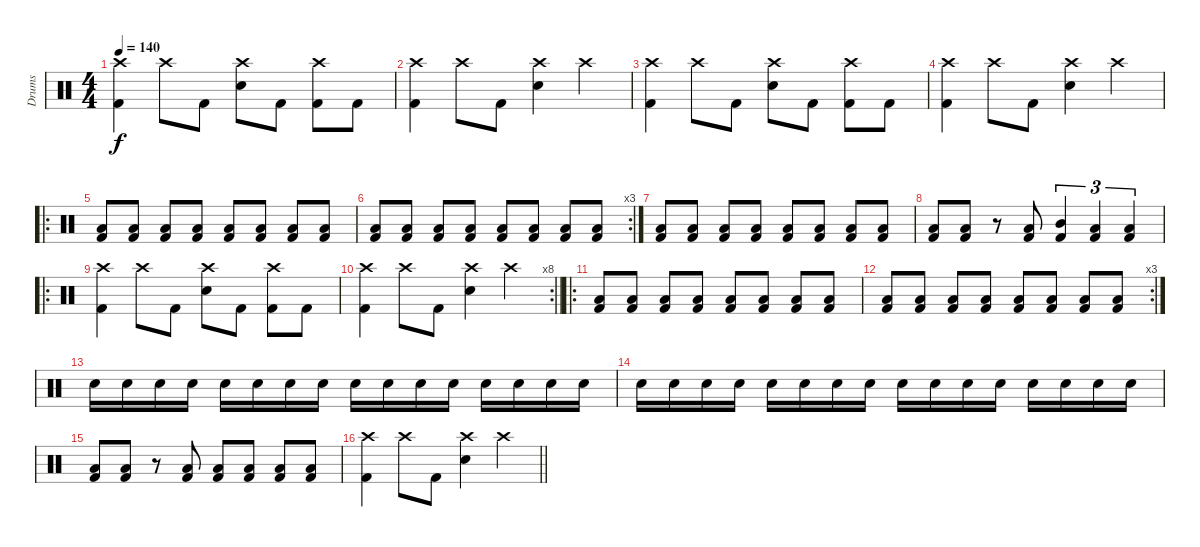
\track ("Drums" "Drums") {instrument percussion}
\staff {score}
\articulation defaults
\ts (4 4)
\tempo 140
\clef neutral
\ks c
("Kick (hit) 2" "Crash high (hit)").4{dy f} "Crash high (hit)".8 "Kick (hit) 2".8 ("Snare (hit) 2" "Crash high (hit)").8 "Kick (hit) 2".8 ("Kick (hit) 2" "Crash high (hit)").8 "Kick (hit) 2".8 |
("Kick (hit) 2" "Crash high (hit)").4 "Crash high (hit)".8 "Kick (hit) 2".8 ("Snare (hit) 2" "Crash high (hit)").4 "Crash high (hit)".4 |
("Kick (hit) 2" "Crash high (hit)").4 "Crash high (hit)".8 "Kick (hit) 2".8 ("Snare (hit) 2" "Crash high (hit)").8 "Kick (hit) 2".8 ("Kick (hit) 2" "Crash high (hit)").8 "Kick (hit) 2".8 |
("Kick (hit) 2" "Crash high (hit)").4 "Crash high (hit)".8 "Kick (hit) 2".8 ("Snare (hit) 2" "Crash high (hit)").4 "Crash high (hit)".4 |
\ro
("Kick (hit) 2" "Low Floor Tom (hit)").8 ("Kick (hit) 2" "Low Floor Tom (hit)").8 ("Kick (hit) 2" "Low Floor Tom (hit)").8 ("Kick (hit) 2" "Low Floor Tom (hit)").8 ("Kick (hit) 2" "Low Floor Tom (hit)").8 ("Kick (hit) 2" "Low Floor Tom (hit)").8 ("Kick (hit) 2" "Low Floor Tom (hit)").8 ("Kick (hit) 2" "Low Floor Tom (hit)").8 |
\rc 3
("Kick (hit) 2" "Low Floor Tom (hit)").8 ("Kick (hit) 2" "Low Floor Tom (hit)").8 ("Kick (hit) 2" "Low Floor Tom (hit)").8 ("Kick (hit) 2" "Low Floor Tom (hit)").8 ("Kick (hit) 2" "Low Floor Tom (hit)").8 ("Kick (hit) 2" "Low Floor Tom (hit)").8 ("Kick (hit) 2" "Low Floor Tom (hit)").8 ("Kick (hit) 2" "Low Floor Tom (hit)").8 |
("Kick (hit) 2" "Low Floor Tom (hit)").8 ("Kick (hit) 2" "Low Floor Tom (hit)").8 ("Kick (hit) 2" "Low Floor Tom (hit)").8 ("Kick (hit) 2" "Low Floor Tom (hit)").8 ("Kick (hit) 2" "Low Floor Tom (hit)").8 ("Kick (hit) 2" "Low Floor Tom (hit)").8 ("Kick (hit) 2" "Low Floor Tom (hit)").8 ("Kick (hit) 2" "Low Floor Tom (hit)").8 |
("Kick (hit) 2" "Low Floor Tom (hit)").8 ("Kick (hit) 2" "Low Floor Tom (hit)").8 r.8 ("Low Floor Tom (hit)" "Kick (hit) 2").8 ("Kick (hit) 2" "Mid Tom (hit)").4{tu (3 2)} ("Kick (hit) 2" "Low Tom (hit)").4{tu (3 2)} ("Kick (hit) 2" "Low Floor Tom (hit)").4{tu (3 2)} |
\ro
("Kick (hit) 2" "Crash high (hit)").4 "Crash high (hit)".8 "Kick (hit) 2".8 ("Snare (hit) 2" "Crash high (hit)").8 "Kick (hit) 2".8 ("Kick (hit) 2" "Crash high (hit)").8 "Kick (hit) 2".8 |
\rc 8
\barLineRight lightlight
("Kick (hit) 2" "Crash high (hit)").4 "Crash high (hit)".8 "Kick (hit) 2".8 ("Snare (hit) 2" "Crash high (hit)").4 "Crash high (hit)".4 |
\ro
("Kick (hit) 2" "Low Floor Tom (hit)").8 ("Kick (hit) 2" "Low Floor Tom (hit)").8 ("Kick (hit) 2" "Low Floor Tom (hit)").8 ("Kick (hit) 2" "Low Floor Tom (hit)").8 ("Kick (hit) 2" "Low Floor Tom (hit)").8 ("Kick (hit) 2" "Low Floor Tom (hit)").8 ("Kick (hit) 2" "Low Floor Tom (hit)").8 ("Kick (hit) 2" "Low Floor Tom (hit)").8 |
\rc 3
("Kick (hit) 2" "Low Floor Tom (hit)").8 ("Kick (hit) 2" "Low Floor Tom (hit)").8 ("Kick (hit) 2" "Low Floor Tom (hit)").8 ("Kick (hit) 2" "Low Floor Tom (hit)").8 ("Kick (hit) 2" "Low Floor Tom (hit)").8 ("Kick (hit) 2" "Low Floor Tom (hit)").8 ("Kick (hit) 2" "Low Floor Tom (hit)").8 ("Kick (hit) 2" "Low Floor Tom (hit)").8 |
"Snare (hit) 2".16{volume 5} "Snare (hit) 2".16{volume 16} "Snare (hit) 2".16 "Snare (hit) 2".16 "Snare (hit) 2".16 "Snare (hit) 2".16 "Snare (hit) 2".16 "Snare (hit) 2".16 "Snare (hit) 2".16 "Snare (hit) 2".16 "Snare (hit) 2".16 "Snare (hit) 2".16 "Snare (hit) 2".16 "Snare (hit) 2".16 "Snare (hit) 2".16 "Snare (hit) 2".16 |
"Snare (hit) 2".16 "Snare (hit) 2".16 "Snare (hit) 2".16 "Snare (hit) 2".16 "Snare (hit) 2".16 "Snare (hit) 2".16 "Snare (hit) 2".16 "Snare (hit) 2".16 "Snare (hit) 2".16 "Snare (hit) 2".16 "Snare (hit) 2".16 "Snare (hit) 2".16 "Snare (hit) 2".16 "Snare (hit) 2".16 "Snare (hit) 2".16 "Snare (hit) 2".16 |
("Low Floor Tom (hit)" "Kick (hit) 2").8 ("Low Floor Tom (hit)" "Kick (hit) 2").8 r.8 ("Low Floor Tom (hit)" "Kick (hit) 2").8 ("Low Floor Tom (hit)" "Kick (hit) 2").8 ("Low Floor Tom (hit)" "Kick (hit) 2").8 ("Low Floor Tom (hit)" "Kick (hit) 2").8 ("Low Floor Tom (hit)" "Kick (hit) 2").8 |
\barLineRight lightlight
("Kick (hit) 2" "Crash high (hit)").4 "Crash high (hit)".8 "Kick (hit) 2".8 ("Snare (hit) 2" "Crash high (hit)").4 "Crash high (hit)".4
